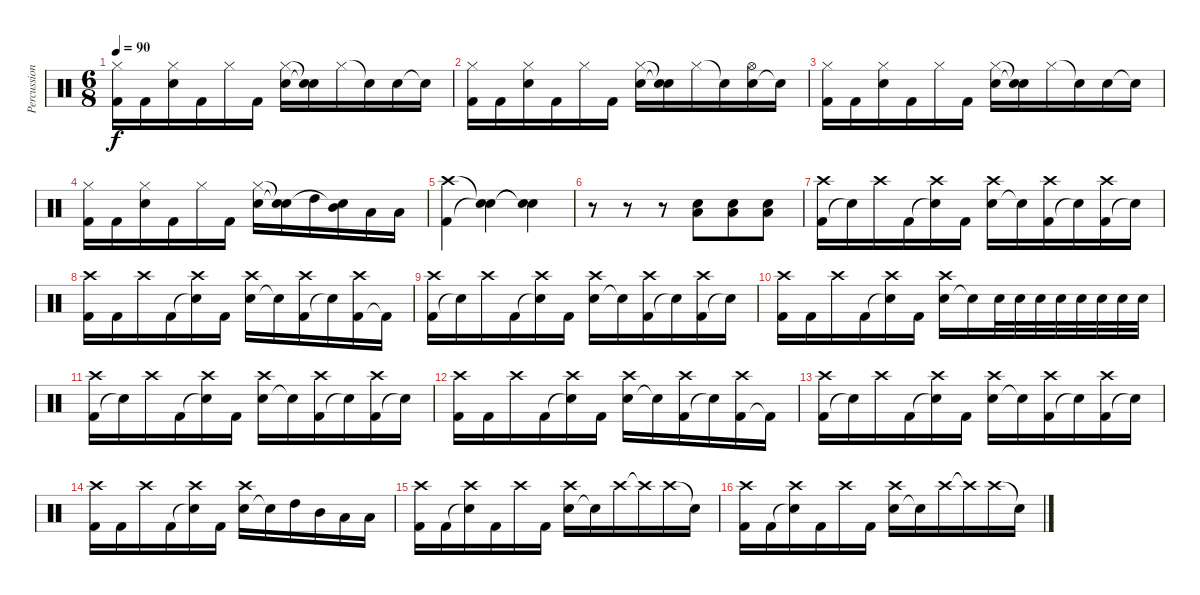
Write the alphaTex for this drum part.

\track ("Percussions" "Percussion") {instrument percussion}
\staff {score}
\articulation defaults
\ts (6 8)
\tempo 90
\clef neutral
\ks c
("Kick (hit) 2" "Hi-Hat (closed)").16{dy f} "Kick (hit) 2".16 ("Snare (hit) 2" "Hi-Hat (closed)").16 "Kick (hit) 2".16 "Hi-Hat (closed)".16 "Kick (hit) 2".16 ("Snare (hit) 2" "Hi-Hat (closed)").16 ("Snare (hit)"{t} "Snare (hit)"{t}).16 "Hi-Hat (closed)".16 "Snare (hit)"{t}.16 "Snare (hit) 2".16 "Snare (hit)"{t}.16 |
("Kick (hit) 2" "Hi-Hat (closed)").16 "Kick (hit) 2".16 ("Snare (hit) 2" "Hi-Hat (closed)").16 "Kick (hit) 2".16 "Hi-Hat (closed)".16 "Kick (hit) 2".16 ("Snare (hit) 2" "Hi-Hat (closed)").16 ("Snare (hit)"{t} "Snare (hit)"{t}).16 "Hi-Hat (closed)".16 "Snare (hit)"{t}.16 ("Snare (hit) 2" "Hi-Hat (open)").16 "Snare (hit)"{t}.16 |
("Kick (hit) 2" "Hi-Hat (closed)").16 "Kick (hit) 2".16 ("Snare (hit) 2" "Hi-Hat (closed)").16 "Kick (hit) 2".16 "Hi-Hat (closed)".16 "Kick (hit) 2".16 ("Snare (hit) 2" "Hi-Hat (closed)").16 ("Snare (hit)"{t} "Snare (hit)"{t}).16 "Hi-Hat (closed)".16 "Snare (hit)"{t}.16 "Snare (hit) 2".16 "Snare (hit)"{t}.16 |
("Kick (hit) 2" "Hi-Hat (closed)").16 "Kick (hit) 2".16 ("Snare (hit) 2" "Hi-Hat (closed)").16 "Kick (hit) 2".16 "Hi-Hat (closed)".16 "Kick (hit) 2".16 ("Snare (hit) 2" "Hi-Hat (closed)").16 ("Snare (hit)"{t} "Snare (hit)"{t}).16 "High Tom (hit)".16 ("Mid Tom (hit)" "Snare (hit)"{t}).16 "Low Tom (hit)".16 "Low Floor Tom (hit)".16 |
("Kick (hit) 2" "Crash high (hit)").4 ("Snare (hit)"{t} "Snare (hit)"{t}).4 ("Snare (hit)"{t} "Snare (hit)"{t}).4 |
r.8 r.8 r.8 ("Snare (hit) 2" "Low Floor Tom (hit)").8 ("Snare (hit) 2" "Low Floor Tom (hit)").8 ("Snare (hit) 2" "Low Floor Tom (hit)").8 |
("Kick (hit) 2" "Crash high (hit)").16 "Snare (hit)"{t}.16 "Crash high (hit)".16 "Kick (hit) 2".16 ("Snare (hit)"{t} "Crash high (hit)").16 "Kick (hit) 2".16 ("Snare (hit) 2" "Crash high (hit)").16 "Snare (hit)"{t}.16 ("Kick (hit) 2" "Crash high (hit)").16 "Snare (hit)"{t}.16 ("Kick (hit) 2" "Crash high (hit)").16 "Snare (hit)"{t}.16 |
("Kick (hit) 2" "Crash high (hit)").16 "Kick (hit) 2".16 "Crash high (hit)".16 "Kick (hit) 2".16 ("Snare (hit)"{t} "Crash high (hit)").16 "Kick (hit) 2".16 ("Snare (hit) 2" "Crash high (hit)").16 "Snare (hit)"{t}.16 ("Kick (hit) 2" "Crash high (hit)").16 "Snare (hit)"{t}.16 ("Kick (hit) 2" "Crash high (hit)").16 "Kick (hit) 2"{t}.16 |
("Kick (hit) 2" "Crash high (hit)").16 "Snare (hit)"{t}.16 "Crash high (hit)".16 "Kick (hit) 2".16 ("Snare (hit)"{t} "Crash high (hit)").16 "Kick (hit) 2".16 ("Snare (hit) 2" "Crash high (hit)").16 "Snare (hit)"{t}.16 ("Kick (hit) 2" "Crash high (hit)").16 "Snare (hit)"{t}.16 ("Kick (hit) 2" "Crash high (hit)").16 "Snare (hit)"{t}.16 |
("Kick (hit) 2" "Crash high (hit)").16 "Kick (hit) 2".16 "Crash high (hit)".16 "Kick (hit) 2".16 ("Snare (hit)"{t} "Crash high (hit)").16 "Kick (hit) 2".16 ("Snare (hit) 2" "Crash high (hit)").16 "Snare (hit)"{t}.16 "Snare (hit) 2".32 "Snare (hit) 2".32 "Snare (hit) 2".32 "Snare (hit) 2".32 "Snare (hit) 2".32 "Snare (hit) 2".32 "Snare (hit) 2".32 "Snare (hit) 2".32 |
("Kick (hit) 2" "Crash high (hit)").16 "Snare (hit)"{t}.16 "Crash high (hit)".16 "Kick (hit) 2".16 ("Snare (hit)"{t} "Crash high (hit)").16 "Kick (hit) 2".16 ("Snare (hit) 2" "Crash high (hit)").16 "Snare (hit)"{t}.16 ("Kick (hit) 2" "Crash high (hit)").16 "Snare (hit)"{t}.16 ("Kick (hit) 2" "Crash high (hit)").16 "Snare (hit)"{t}.16 |
("Kick (hit) 2" "Crash high (hit)").16 "Kick (hit) 2".16 "Crash high (hit)".16 "Kick (hit) 2".16 ("Snare (hit)"{t} "Crash high (hit)").16 "Kick (hit) 2".16 ("Snare (hit) 2" "Crash high (hit)").16 "Snare (hit)"{t}.16 ("Kick (hit) 2" "Crash high (hit)").16 "Snare (hit)"{t}.16 ("Kick (hit) 2" "Crash high (hit)").16 "Kick (hit) 2"{t}.16 |
("Kick (hit) 2" "Crash high (hit)").16 "Snare (hit)"{t}.16 "Crash high (hit)".16 "Kick (hit) 2".16 ("Snare (hit)"{t} "Crash high (hit)").16 "Kick (hit) 2".16 ("Snare (hit) 2" "Crash high (hit)").16 "Snare (hit)"{t}.16 ("Kick (hit) 2" "Crash high (hit)").16 "Snare (hit)"{t}.16 ("Kick (hit) 2" "Crash high (hit)").16 "Snare (hit)"{t}.16 |
("Kick (hit) 2" "Crash high (hit)").16 "Kick (hit) 2".16 "Crash high (hit)".16 "Kick (hit) 2".16 ("Snare (hit)"{t} "Crash high (hit)").16 "Kick (hit) 2".16 ("Snare (hit) 2" "Crash high (hit)").16 "Snare (hit)"{t}.16 "High Tom (hit)".16 "Mid Tom (hit)".16 "Low Tom (hit)".16 "Low Floor Tom (hit)".16 |
("Kick (hit) 2" "Crash high (hit)").16 "Kick (hit) 2".16 ("Snare (hit)"{t} "Crash high (hit)").16 "Kick (hit) 2".16 "Crash high (hit)".16 "Kick (hit) 2".16 ("Snare (hit) 2" "Crash high (hit)").16 "Snare (hit)"{t}.16 "Crash high (hit)".16 "Crash high (hit)"{t}.16 "Crash high (hit)".16 "Snare (hit)"{t}.16 |
("Kick (hit) 2" "Crash high (hit)").16 "Kick (hit) 2".16 ("Snare (hit)"{t} "Crash high (hit)").16 "Kick (hit) 2".16 "Crash high (hit)".16 "Kick (hit) 2".16 ("Snare (hit) 2" "Crash high (hit)").16 "Snare (hit)"{t}.16 "Crash high (hit)".16 "Crash high (hit)"{t}.16 "Crash high (hit)".16 "Snare (hit)"{t}.16
